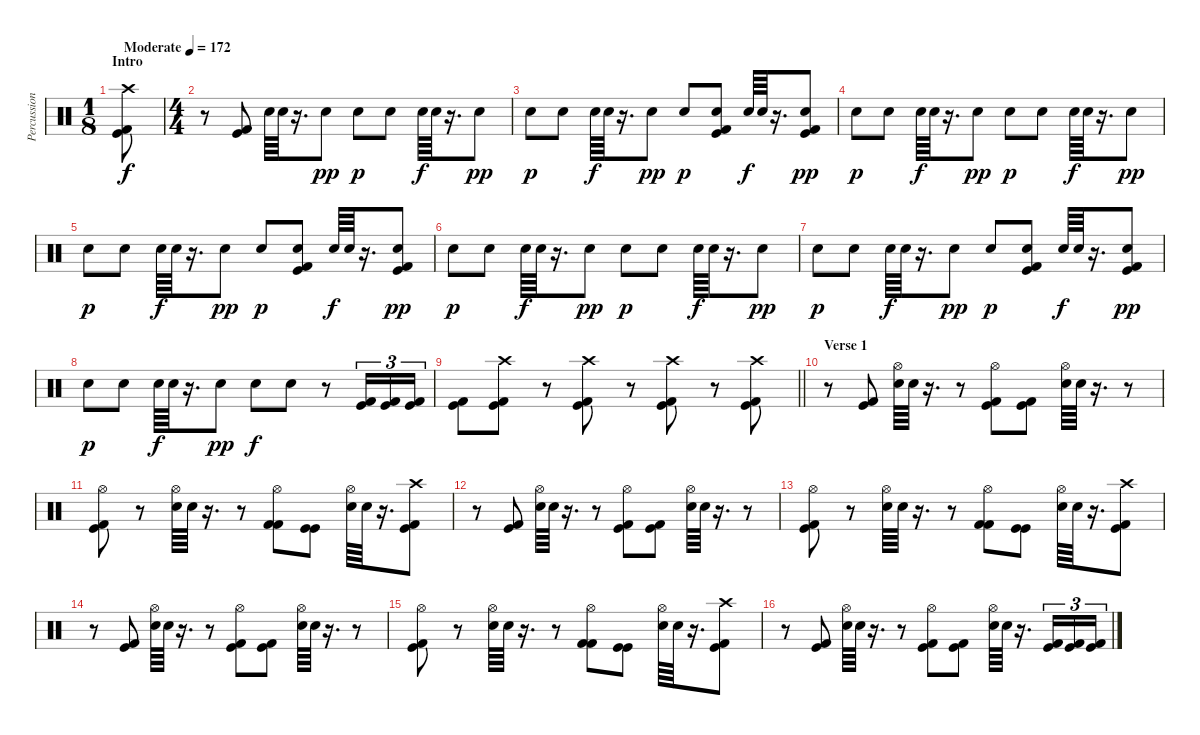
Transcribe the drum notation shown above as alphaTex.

\track ("Percussion" "Percussion") {instrument percussion}
\staff {score}
\articulation defaults
\ts (1 8)
\section ("" "Intro")
\tempo (172 "Moderate")
\clef neutral
\ks c
("Crash high (hit)" "Kick (hit)" "Kick (hit) 2").8{dy f} |
\ts (4 4)
r.8 ("Kick (hit)" "Kick (hit) 2").8 "Snare (hit) 2".64 "Snare (hit) 2".64 r.16{d} "Snare (hit) 2".8{dy pp} "Snare (hit) 2".8{dy p} "Snare (hit) 2".8 "Snare (hit) 2".64{dy f} "Snare (hit) 2".64 r.16{d} "Snare (hit) 2".8{dy pp} |
"Snare (hit) 2".8{dy p} "Snare (hit) 2".8 "Snare (hit) 2".64{dy f} "Snare (hit) 2".64 r.16{d} "Snare (hit) 2".8{dy pp} "Snare (hit) 2".8{dy p} ("Snare (hit) 2" "Kick (hit)" "Kick (hit) 2").8 "Snare (hit) 2".64{dy f} "Snare (hit) 2".64 r.16{d} ("Snare (hit) 2" "Kick (hit)" "Kick (hit) 2").8{dy pp} |
"Snare (hit) 2".8{dy p} "Snare (hit) 2".8 "Snare (hit) 2".64{dy f} "Snare (hit) 2".64 r.16{d} "Snare (hit) 2".8{dy pp} "Snare (hit) 2".8{dy p} "Snare (hit) 2".8 "Snare (hit) 2".64{dy f} "Snare (hit) 2".64 r.16{d} "Snare (hit) 2".8{dy pp} |
"Snare (hit) 2".8{dy p} "Snare (hit) 2".8 "Snare (hit) 2".64{dy f} "Snare (hit) 2".64 r.16{d} "Snare (hit) 2".8{dy pp} "Snare (hit) 2".8{dy p} ("Snare (hit) 2" "Kick (hit)" "Kick (hit) 2").8 "Snare (hit) 2".64{dy f} "Snare (hit) 2".64 r.16{d} ("Snare (hit) 2" "Kick (hit)" "Kick (hit) 2").8{dy pp} |
"Snare (hit) 2".8{dy p} "Snare (hit) 2".8 "Snare (hit) 2".64{dy f} "Snare (hit) 2".64 r.16{d} "Snare (hit) 2".8{dy pp} "Snare (hit) 2".8{dy p} "Snare (hit) 2".8 "Snare (hit) 2".64{dy f} "Snare (hit) 2".64 r.16{d} "Snare (hit) 2".8{dy pp} |
"Snare (hit) 2".8{dy p} "Snare (hit) 2".8 "Snare (hit) 2".64{dy f} "Snare (hit) 2".64 r.16{d} "Snare (hit) 2".8{dy pp} "Snare (hit) 2".8{dy p} ("Snare (hit) 2" "Kick (hit)" "Kick (hit) 2").8 "Snare (hit) 2".64{dy f} "Snare (hit) 2".64 r.16{d} ("Snare (hit) 2" "Kick (hit)" "Kick (hit) 2").8{dy pp} |
"Snare (hit) 2".8{dy p} "Snare (hit) 2".8 "Snare (hit) 2".64{dy f} "Snare (hit) 2".64 r.16{d} "Snare (hit) 2".8{dy pp} "Snare (hit) 2".8{dy f} "Snare (hit) 2".8 r.8 ("Kick (hit)" "Kick (hit) 2").16{tu (3 2)} ("Kick (hit)" "Kick (hit) 2").16{tu (3 2)} ("Kick (hit)" "Kick (hit) 2").16{tu (3 2)} |
\barLineRight lightlight
("Kick (hit)" "Kick (hit) 2").8 ("Crash high (hit)" "Kick (hit)" "Kick (hit) 2").8 r.8 ("Crash high (hit)" "Kick (hit)" "Kick (hit) 2").8 r.8 ("Crash high (hit)" "Kick (hit)" "Kick (hit) 2").8 r.8 ("Crash high (hit)" "Kick (hit)" "Kick (hit) 2").8 |
\section ("" "Verse 1")
r.8 ("Kick (hit)" "Kick (hit) 2").8 ("Hi-Hat (open)" "Snare (hit) 2").64 "Snare (hit) 2".64 r.16{d} r.8 ("Hi-Hat (open)" "Kick (hit)" "Kick (hit) 2").8 ("Kick (hit)" "Kick (hit) 2").8 ("Hi-Hat (open)" "Snare (hit) 2").64 "Snare (hit) 2".64 r.16{d} r.8 |
("Hi-Hat (open)" "Kick (hit)" "Kick (hit) 2").8 r.8 ("Hi-Hat (open)" "Snare (hit) 2").64 "Snare (hit) 2".64 r.16{d} r.8 ("Hi-Hat (open)" "Kick (hit) 2" "Kick (hit) 2").8 ("Kick (hit)" "Kick (hit)").8 ("Hi-Hat (open)" "Snare (hit) 2").64 "Snare (hit) 2".64 r.16{d} ("Crash high (hit)" "Kick (hit)" "Kick (hit) 2").8 |
r.8 ("Kick (hit)" "Kick (hit) 2").8 ("Hi-Hat (open)" "Snare (hit) 2").64 "Snare (hit) 2".64 r.16{d} r.8 ("Hi-Hat (open)" "Kick (hit)" "Kick (hit) 2").8 ("Kick (hit)" "Kick (hit) 2").8 ("Hi-Hat (open)" "Snare (hit) 2").64 "Snare (hit) 2".64 r.16{d} r.8 |
("Hi-Hat (open)" "Kick (hit)" "Kick (hit) 2").8 r.8 ("Hi-Hat (open)" "Snare (hit) 2").64 "Snare (hit) 2".64 r.16{d} r.8 ("Hi-Hat (open)" "Kick (hit) 2" "Kick (hit) 2").8 ("Kick (hit)" "Kick (hit)").8 ("Hi-Hat (open)" "Snare (hit) 2").64 "Snare (hit) 2".64 r.16{d} ("Crash high (hit)" "Kick (hit)" "Kick (hit) 2").8 |
r.8 ("Kick (hit)" "Kick (hit) 2").8 ("Hi-Hat (open)" "Snare (hit) 2").64 "Snare (hit) 2".64 r.16{d} r.8 ("Hi-Hat (open)" "Kick (hit)" "Kick (hit) 2").8 ("Kick (hit)" "Kick (hit) 2").8 ("Hi-Hat (open)" "Snare (hit) 2").64 "Snare (hit) 2".64 r.16{d} r.8 |
("Hi-Hat (open)" "Kick (hit)" "Kick (hit) 2").8 r.8 ("Hi-Hat (open)" "Snare (hit) 2").64 "Snare (hit) 2".64 r.16{d} r.8 ("Hi-Hat (open)" "Kick (hit) 2" "Kick (hit) 2").8 ("Kick (hit)" "Kick (hit)").8 ("Hi-Hat (open)" "Snare (hit) 2").64 "Snare (hit) 2".64 r.16{d} ("Crash high (hit)" "Kick (hit)" "Kick (hit) 2").8 |
r.8 ("Kick (hit)" "Kick (hit) 2").8 ("Hi-Hat (open)" "Snare (hit) 2").64 "Snare (hit) 2".64 r.16{d} r.8 ("Hi-Hat (open)" "Kick (hit)" "Kick (hit) 2").8 ("Kick (hit)" "Kick (hit) 2").8 ("Hi-Hat (open)" "Snare (hit) 2").64 "Snare (hit) 2".64 r.16{d} ("Kick (hit)" "Kick (hit) 2").16{tu (3 2)} ("Kick (hit)" "Kick (hit) 2").16{tu (3 2)} ("Kick (hit)" "Kick (hit) 2").16{tu (3 2)}
